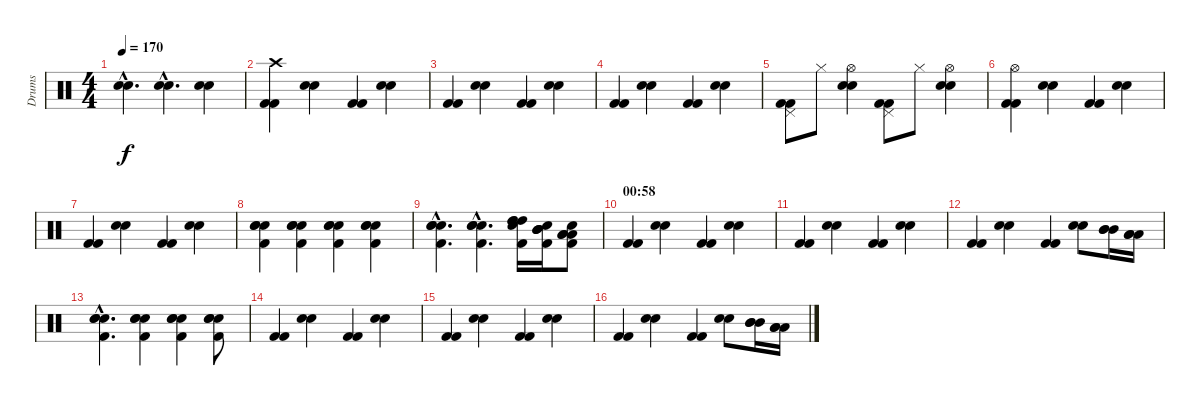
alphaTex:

\track ("Drums" "Drums") {instrument percussion}
\staff {score}
\articulation defaults
\ts (4 4)
\tempo 170
\clef neutral
\ks c
("Snare (hit) 2"{hac} "Electric Snare (hit)"{hac}).4{d dy f} ("Snare (hit) 2"{hac} "Electric Snare (hit)"{hac}).4{d} ("Snare (hit) 2" "Electric Snare (hit)").4 |
("Kick (hit) 2" "Kick (hit) 2" "Crash high (hit)").4 ("Snare (hit) 2" "Hand Clap (hit)").4 ("Kick (hit) 2" "Kick (hit) 2").4 ("Snare (hit) 2" "Hand Clap (hit)").4 |
("Kick (hit) 2" "Kick (hit) 2").4 ("Snare (hit) 2" "Hand Clap (hit)").4 ("Kick (hit) 2" "Kick (hit) 2").4 ("Snare (hit) 2" "Hand Clap (hit)").4 |
("Kick (hit) 2" "Kick (hit) 2").4 ("Snare (hit) 2" "Hand Clap (hit)").4 ("Kick (hit) 2" "Kick (hit) 2").4 ("Snare (hit) 2" "Hand Clap (hit)").4 |
("Kick (hit) 2" "Kick (hit) 2" "Pedal Hi-Hat (hit)").8 "Hi-Hat (closed)".8 ("Snare (hit) 2" "Hand Clap (hit)" "Hi-Hat (open)").4 ("Kick (hit) 2" "Kick (hit) 2" "Pedal Hi-Hat (hit)").8 "Hi-Hat (closed)".8 ("Snare (hit) 2" "Hand Clap (hit)" "Hi-Hat (open)").4 |
("Kick (hit) 2" "Kick (hit) 2" "Hi-Hat (open)").4 ("Snare (hit) 2" "Hand Clap (hit)").4 ("Kick (hit) 2" "Kick (hit) 2").4 ("Snare (hit) 2" "Hand Clap (hit)").4 |
("Kick (hit) 2" "Kick (hit) 2").4 ("Snare (hit) 2" "Hand Clap (hit)").4 ("Kick (hit) 2" "Kick (hit) 2").4 ("Snare (hit) 2" "Hand Clap (hit)").4 |
("Snare (hit) 2" "Electric Snare (hit)" "Hand Clap (hit)" "Kick (hit) 2").4 ("Snare (hit) 2" "Electric Snare (hit)" "Hand Clap (hit)" "Kick (hit) 2").4 ("Snare (hit) 2" "Electric Snare (hit)" "Hand Clap (hit)" "Kick (hit) 2").4 ("Snare (hit) 2" "Electric Snare (hit)" "Hand Clap (hit)" "Kick (hit) 2").4 |
("Snare (hit) 2"{hac} "Electric Snare (hit)"{hac} "Hand Clap (hit)"{hac} "Kick (hit) 2"{hac}).4{d} ("Snare (hit) 2"{hac} "Electric Snare (hit)"{hac} "Hand Clap (hit)"{hac} "Kick (hit) 2"{hac}).4{d} ("Snare (hit) 2" "High Tom (hit)" "High Tom (hit)" "High Tom (hit)" "Kick (hit) 2").16 ("Snare (hit) 2" "Mid Tom (hit)" "Mid Tom (hit)" "Mid Tom (hit)" "Kick (hit) 2").16 ("Snare (hit) 2" "Low Tom (hit)" "Low Tom (hit)" "Low Tom (hit)" "Kick (hit) 2").8 |
\section ("" "00:58")
("Kick (hit) 2" "Kick (hit) 2").4 ("Snare (hit) 2" "Hand Clap (hit)").4 ("Kick (hit) 2" "Kick (hit) 2").4 ("Snare (hit) 2" "Hand Clap (hit)").4 |
("Kick (hit) 2" "Kick (hit) 2").4 ("Snare (hit) 2" "Hand Clap (hit)").4 ("Kick (hit) 2" "Kick (hit) 2").4 ("Snare (hit) 2" "Hand Clap (hit)").4 |
("Kick (hit) 2" "Kick (hit) 2").4 ("Snare (hit) 2" "Hand Clap (hit)").4 ("Kick (hit) 2" "Kick (hit) 2").4 ("Snare (hit) 2" "Hand Clap (hit)").8 ("Mid Tom (hit)" "Mid Tom (hit)" "Mid Tom (hit)").16 ("Low Floor Tom (hit)" "Low Floor Tom (hit)" "Low Floor Tom (hit)").16 |
("Snare (hit) 2"{hac} "Electric Snare (hit)"{hac} "Hand Clap (hit)"{hac} "Kick (hit) 2"{hac}).4{d} ("Snare (hit) 2" "Electric Snare (hit)" "Hand Clap (hit)" "Kick (hit) 2").4 ("Snare (hit) 2" "Electric Snare (hit)" "Hand Clap (hit)" "Kick (hit) 2").4 ("Snare (hit) 2" "Electric Snare (hit)" "Hand Clap (hit)" "Kick (hit) 2").8 |
("Kick (hit) 2" "Kick (hit) 2").4 ("Snare (hit) 2" "Hand Clap (hit)").4 ("Kick (hit) 2" "Kick (hit) 2").4 ("Snare (hit) 2" "Hand Clap (hit)").4 |
("Kick (hit) 2" "Kick (hit) 2").4 ("Snare (hit) 2" "Hand Clap (hit)").4 ("Kick (hit) 2" "Kick (hit) 2").4 ("Snare (hit) 2" "Hand Clap (hit)").4 |
("Kick (hit) 2" "Kick (hit) 2").4 ("Snare (hit) 2" "Hand Clap (hit)").4 ("Kick (hit) 2" "Kick (hit) 2").4 ("Snare (hit) 2" "Hand Clap (hit)").8 ("Mid Tom (hit)" "Mid Tom (hit)" "Mid Tom (hit)").16 ("Low Floor Tom (hit)" "Low Floor Tom (hit)" "Low Floor Tom (hit)").16
